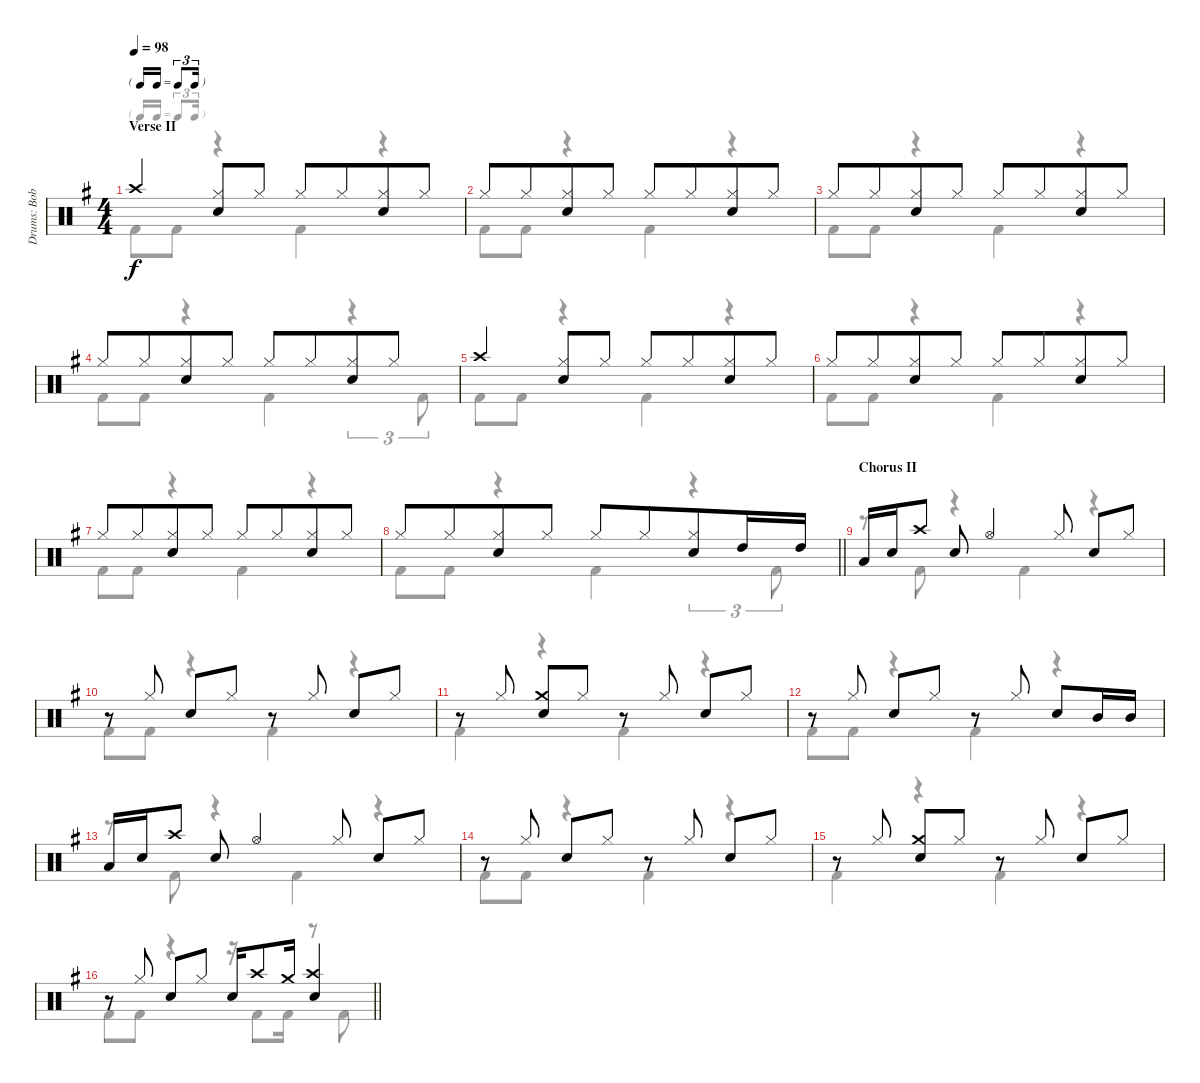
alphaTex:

\track ("Drums: Bobby" "Drums: Bob") {instrument percussion}
\staff {score}
\articulation defaults
\voice
\ts (4 4)
\tf triplet16th
\section ("" "Verse II")
\tempo 98
\clef neutral
\ks g "Crash high (hit)".4{dy f}
("Hi-Hat (closed)" "Snare (hit) 2").8 "Hi-Hat (closed)".8 "Hi-Hat (closed)".8 "Hi-Hat (closed)".8{beam merge} ("Hi-Hat (closed)" "Snare (hit) 2").8 "Hi-Hat (closed)".8 |
"Hi-Hat (closed)".8 "Hi-Hat (closed)".8{beam merge} ("Hi-Hat (closed)" "Snare (hit) 2").8 "Hi-Hat (closed)".8 "Hi-Hat (closed)".8 "Hi-Hat (closed)".8{beam merge} ("Hi-Hat (closed)" "Snare (hit) 2").8 "Hi-Hat (closed)".8 |
"Hi-Hat (closed)".8 "Hi-Hat (closed)".8{beam merge} ("Hi-Hat (closed)" "Snare (hit) 2").8 "Hi-Hat (closed)".8 "Hi-Hat (closed)".8 "Hi-Hat (closed)".8{beam merge} ("Hi-Hat (closed)" "Snare (hit) 2").8 "Hi-Hat (closed)".8 |
"Hi-Hat (closed)".8 "Hi-Hat (closed)".8{beam merge} ("Hi-Hat (closed)" "Snare (hit) 2").8 "Hi-Hat (closed)".8 "Hi-Hat (closed)".8 "Hi-Hat (closed)".8{beam merge} ("Hi-Hat (closed)" "Snare (hit) 2").8 "Hi-Hat (closed)".8 |
"Crash high (hit)".4 ("Hi-Hat (closed)" "Snare (hit) 2").8 "Hi-Hat (closed)".8 "Hi-Hat (closed)".8 "Hi-Hat (closed)".8{beam merge} ("Hi-Hat (closed)" "Snare (hit) 2").8 "Hi-Hat (closed)".8 |
"Hi-Hat (closed)".8 "Hi-Hat (closed)".8{beam merge} ("Hi-Hat (closed)" "Snare (hit) 2").8 "Hi-Hat (closed)".8 "Hi-Hat (closed)".8 "Hi-Hat (closed)".8{beam merge} ("Hi-Hat (closed)" "Snare (hit) 2").8 "Hi-Hat (closed)".8 |
"Hi-Hat (closed)".8 "Hi-Hat (closed)".8{beam merge} ("Hi-Hat (closed)" "Snare (hit) 2").8 "Hi-Hat (closed)".8 "Hi-Hat (closed)".8 "Hi-Hat (closed)".8{beam merge} ("Hi-Hat (closed)" "Snare (hit) 2").8 "Hi-Hat (closed)".8 |
\barLineRight lightlight "Hi-Hat (closed)".8 "Hi-Hat (closed)".8{beam merge}
("Hi-Hat (closed)" "Snare (hit) 2").8 "Hi-Hat (closed)".8 "Hi-Hat (closed)".8 "Hi-Hat (closed)".8{beam merge} ("Hi-Hat (closed)" "Snare (hit) 2").8 "High Tom (hit)".16 "High Tom (hit)".16 |
\section ("" "Chorus II")
"Low Tom (hit)".16 "Snare (hit) 2".16 "Crash high (hit)".8 "Snare (hit) 2".8 "Hi-Hat (open)".4 "Hi-Hat (closed)".8 "Snare (hit) 2".8 "Hi-Hat (closed)".8 |
r.8 "Hi-Hat (closed)".8 "Snare (hit) 2".8 "Hi-Hat (closed)".8 r.8 "Hi-Hat (closed)".8 "Snare (hit) 2".8 "Hi-Hat (closed)".8 |
r.8 "Hi-Hat (closed)".8 ("Crash medium (hit)" "Snare (hit) 2").8 "Hi-Hat (closed)".8 r.8 "Hi-Hat (closed)".8 "Snare (hit) 2".8 "Hi-Hat (closed)".8 |
r.8 "Hi-Hat (closed)".8 "Snare (hit) 2".8 "Hi-Hat (closed)".8 r.8 "Hi-Hat (closed)".8 "Snare (hit) 2".8 "Mid Tom (hit)".16 "Mid Tom (hit)".16 |
"Low Tom (hit)".16 "Snare (hit) 2".16 "Crash high (hit)".8 "Snare (hit) 2".8 "Hi-Hat (open)".4 "Hi-Hat (closed)".8 "Snare (hit) 2".8 "Hi-Hat (closed)".8 |
r.8 "Hi-Hat (closed)".8 "Snare (hit) 2".8 "Hi-Hat (closed)".8 r.8 "Hi-Hat (closed)".8 "Snare (hit) 2".8 "Hi-Hat (closed)".8 |
r.8 "Hi-Hat (closed)".8 ("Crash medium (hit)" "Snare (hit) 2").8 "Hi-Hat (closed)".8 r.8 "Hi-Hat (closed)".8 "Snare (hit) 2".8 "Hi-Hat (closed)".8 |
\barLineRight lightlight
r.8 "Hi-Hat (closed)".8 "Snare (hit) 2".8 "Hi-Hat (closed)".8 "Snare (hit) 2".16 "Crash high (hit)".8 "Crash medium (hit)".16 ("Crash high (hit)" "Snare (hit) 2").4
\voice
\clef neutral
\ottava regular
\simile none
\ks g "Kick (hit) 2".8{dy f} "Kick (hit) 2".8
r.4 "Kick (hit) 2".4 r.4 |
"Kick (hit) 2".8 "Kick (hit) 2".8 r.4 "Kick (hit) 2".4 r.4 |
"Kick (hit) 2".8 "Kick (hit) 2".8 r.4 "Kick (hit) 2".4 r.4 |
"Kick (hit) 2".8 "Kick (hit) 2".8 r.4 "Kick (hit) 2".4 r.4{tu (3 2)} "Kick (hit) 2".8{tu (3 2)} |
"Kick (hit) 2".8 "Kick (hit) 2".8 r.4 "Kick (hit) 2".4 r.4 |
"Kick (hit) 2".8 "Kick (hit) 2".8 r.4 "Kick (hit) 2".4 r.4 |
"Kick (hit) 2".8 "Kick (hit) 2".8 r.4 "Kick (hit) 2".4 r.4 |
\barLineRight lightlight "Kick (hit) 2".8 "Kick (hit) 2".8
r.4 "Kick (hit) 2".4 r.4{tu (3 2)} "Kick (hit) 2".8{tu (3 2)} |
r.8 "Kick (hit) 2".8 r.4 "Kick (hit) 2".4 r.4 |
"Kick (hit) 2".8 "Kick (hit) 2".8 r.4 "Kick (hit) 2".4 r.4 |
"Kick (hit) 2".4 r.4 "Kick (hit) 2".4 r.4 |
"Kick (hit) 2".8 "Kick (hit) 2".8 r.4 "Kick (hit) 2".4 r.4 |
r.8 "Kick (hit) 2".8 r.4 "Kick (hit) 2".4 r.4 |
"Kick (hit) 2".8 "Kick (hit) 2".8 r.4 "Kick (hit) 2".4 r.4 |
"Kick (hit) 2".4 r.4 "Kick (hit) 2".4 r.4 |
\barLineRight lightlight "Kick (hit) 2".8 "Kick (hit) 2".8
r.4 r.16 "Kick (hit) 2".8 "Kick (hit) 2".16 r.8 "Kick (hit) 2".8
